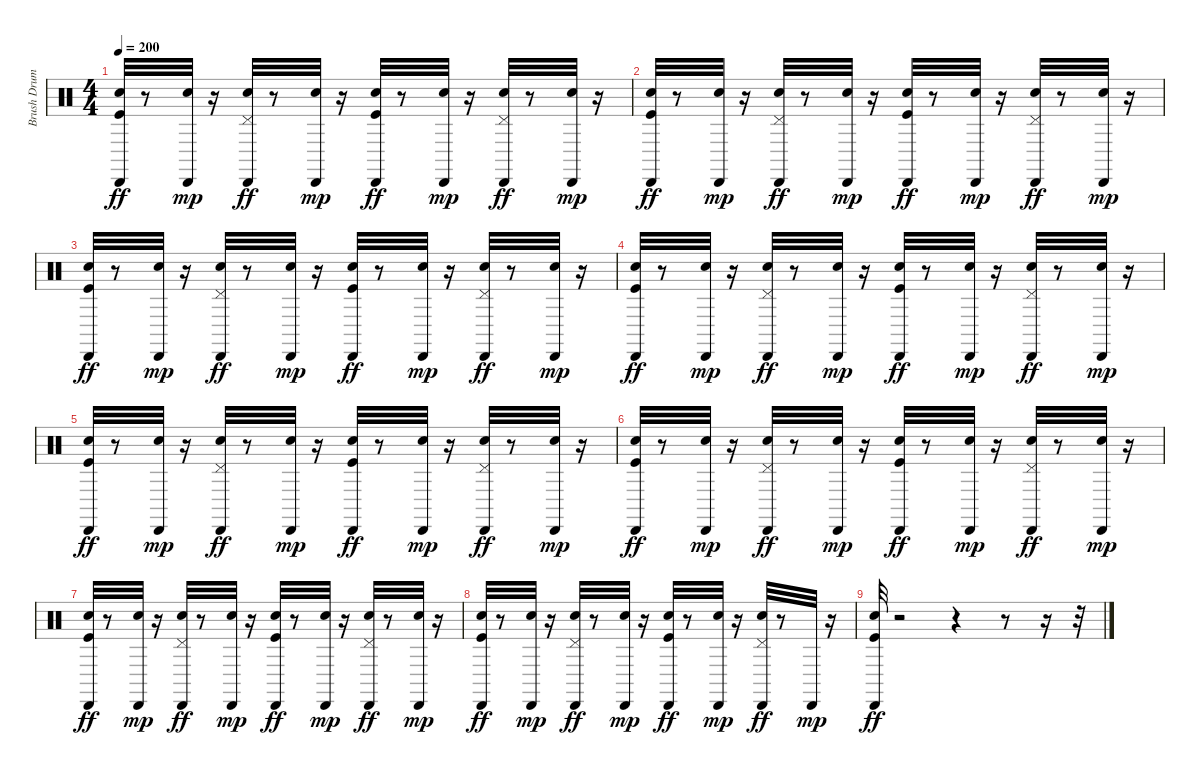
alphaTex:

\track ("Brush Drums" "Brush Drum") {instrument percussion}
\staff {score}
\articulation defaults
\ts (4 4)
\tempo 200
\clef neutral
\ks c
("Cabasa (hit)" "Kick (hit)" "Snare (hit) 2").32{dy ff} r.8 ("Cabasa (hit)" "Snare (hit) 2").32{dy mp} r.16 ("Cabasa (hit)" "Hand Clap (hit)" "Pedal Hi-Hat (hit)").32{dy ff} r.8 ("Cabasa (hit)" "Snare (hit) 2").32{dy mp} r.16 ("Cabasa (hit)" "Kick (hit)" "Snare (hit) 2").32{dy ff} r.8 ("Cabasa (hit)" "Hand Clap (hit)").32{dy mp} r.16 ("Cabasa (hit)" "Pedal Hi-Hat (hit)" "Hand Clap (hit)").32{dy ff} r.8 ("Cabasa (hit)" "Snare (hit) 2").32{dy mp} r.16 |
("Cabasa (hit)" "Kick (hit)" "Snare (hit) 2").32{dy ff} r.8 ("Cabasa (hit)" "Snare (hit) 2").32{dy mp} r.16 ("Cabasa (hit)" "Pedal Hi-Hat (hit)" "Hand Clap (hit)").32{dy ff} r.8 ("Cabasa (hit)" "Snare (hit) 2").32{dy mp} r.16 ("Cabasa (hit)" "Snare (hit) 2" "Kick (hit)").32{dy ff} r.8 ("Cabasa (hit)" "Hand Clap (hit)").32{dy mp} r.16 ("Cabasa (hit)" "Hand Clap (hit)" "Pedal Hi-Hat (hit)").32{dy ff} r.8 ("Cabasa (hit)" "Snare (hit) 2").32{dy mp} r.16 |
("Cabasa (hit)" "Snare (hit) 2" "Kick (hit)").32{dy ff} r.8 ("Cabasa (hit)" "Snare (hit) 2").32{dy mp} r.16 ("Cabasa (hit)" "Pedal Hi-Hat (hit)" "Hand Clap (hit)").32{dy ff} r.8 ("Cabasa (hit)" "Snare (hit) 2").32{dy mp} r.16 ("Cabasa (hit)" "Snare (hit) 2" "Kick (hit)").32{dy ff} r.8 ("Cabasa (hit)" "Hand Clap (hit)").32{dy mp} r.16 ("Cabasa (hit)" "Pedal Hi-Hat (hit)" "Hand Clap (hit)").32{dy ff} r.8 ("Cabasa (hit)" "Snare (hit) 2").32{dy mp} r.16 |
("Cabasa (hit)" "Kick (hit)" "Snare (hit) 2").32{dy ff} r.8 ("Cabasa (hit)" "Snare (hit) 2").32{dy mp} r.16 ("Cabasa (hit)" "Hand Clap (hit)" "Pedal Hi-Hat (hit)").32{dy ff} r.8 ("Cabasa (hit)" "Snare (hit) 2").32{dy mp} r.16 ("Cabasa (hit)" "Snare (hit) 2" "Kick (hit)").32{dy ff} r.8 ("Cabasa (hit)" "Hand Clap (hit)").32{dy mp} r.16 ("Cabasa (hit)" "Pedal Hi-Hat (hit)" "Hand Clap (hit)").32{dy ff} r.8 ("Cabasa (hit)" "Snare (hit) 2").32{dy mp} r.16 |
("Cabasa (hit)" "Kick (hit)" "Snare (hit) 2").32{dy ff} r.8 ("Cabasa (hit)" "Snare (hit) 2").32{dy mp} r.16 ("Cabasa (hit)" "Hand Clap (hit)" "Pedal Hi-Hat (hit)").32{dy ff} r.8 ("Cabasa (hit)" "Snare (hit) 2").32{dy mp} r.16 ("Cabasa (hit)" "Snare (hit) 2" "Kick (hit)").32{dy ff} r.8 ("Cabasa (hit)" "Hand Clap (hit)").32{dy mp} r.16 ("Cabasa (hit)" "Pedal Hi-Hat (hit)" "Hand Clap (hit)").32{dy ff} r.8 ("Cabasa (hit)" "Snare (hit) 2").32{dy mp} r.16 |
("Cabasa (hit)" "Kick (hit)" "Snare (hit) 2").32{dy ff} r.8 ("Cabasa (hit)" "Snare (hit) 2").32{dy mp} r.16 ("Cabasa (hit)" "Hand Clap (hit)" "Pedal Hi-Hat (hit)").32{dy ff} r.8 ("Cabasa (hit)" "Snare (hit) 2").32{dy mp} r.16 ("Cabasa (hit)" "Kick (hit)" "Snare (hit) 2").32{dy ff} r.8 ("Cabasa (hit)" "Snare (hit) 2").32{dy mp} r.16 ("Cabasa (hit)" "Hand Clap (hit)" "Pedal Hi-Hat (hit)").32{dy ff} r.8 ("Cabasa (hit)" "Snare (hit) 2").32{dy mp} r.16 |
("Cabasa (hit)" "Kick (hit)" "Snare (hit) 2").32{dy ff} r.8 ("Cabasa (hit)" "Snare (hit) 2").32{dy mp} r.16 ("Cabasa (hit)" "Hand Clap (hit)" "Pedal Hi-Hat (hit)").32{dy ff} r.8 ("Cabasa (hit)" "Snare (hit) 2").32{dy mp} r.16 ("Cabasa (hit)" "Kick (hit)" "Snare (hit) 2").32{dy ff} r.8 ("Cabasa (hit)" "Snare (hit) 2").32{dy mp} r.16 ("Cabasa (hit)" "Hand Clap (hit)" "Pedal Hi-Hat (hit)").32{dy ff} r.8 ("Cabasa (hit)" "Snare (hit) 2").32{dy mp} r.16 |
("Cabasa (hit)" "Snare (hit) 2" "Kick (hit)").32{dy ff} r.8 ("Cabasa (hit)" "Snare (hit) 2").32{dy mp} r.16 ("Cabasa (hit)" "Hand Clap (hit)" "Pedal Hi-Hat (hit)").32{dy ff} r.8 ("Cabasa (hit)" "Snare (hit) 2").32{dy mp} r.16 ("Cabasa (hit)" "Kick (hit)" "Snare (hit) 2").32{dy ff} r.8 ("Cabasa (hit)" "Hand Clap (hit)").32{dy mp} r.16 ("Cabasa (hit)" "Hand Clap (hit)" "Pedal Hi-Hat (hit)").32{dy ff} r.8 "Cabasa (hit)".32{dy mp} r.16 |
("Cabasa (hit)" "Kick (hit)" "Hand Clap (hit)").32{dy ff} r.2 r.4 r.8 r.16 r.32
